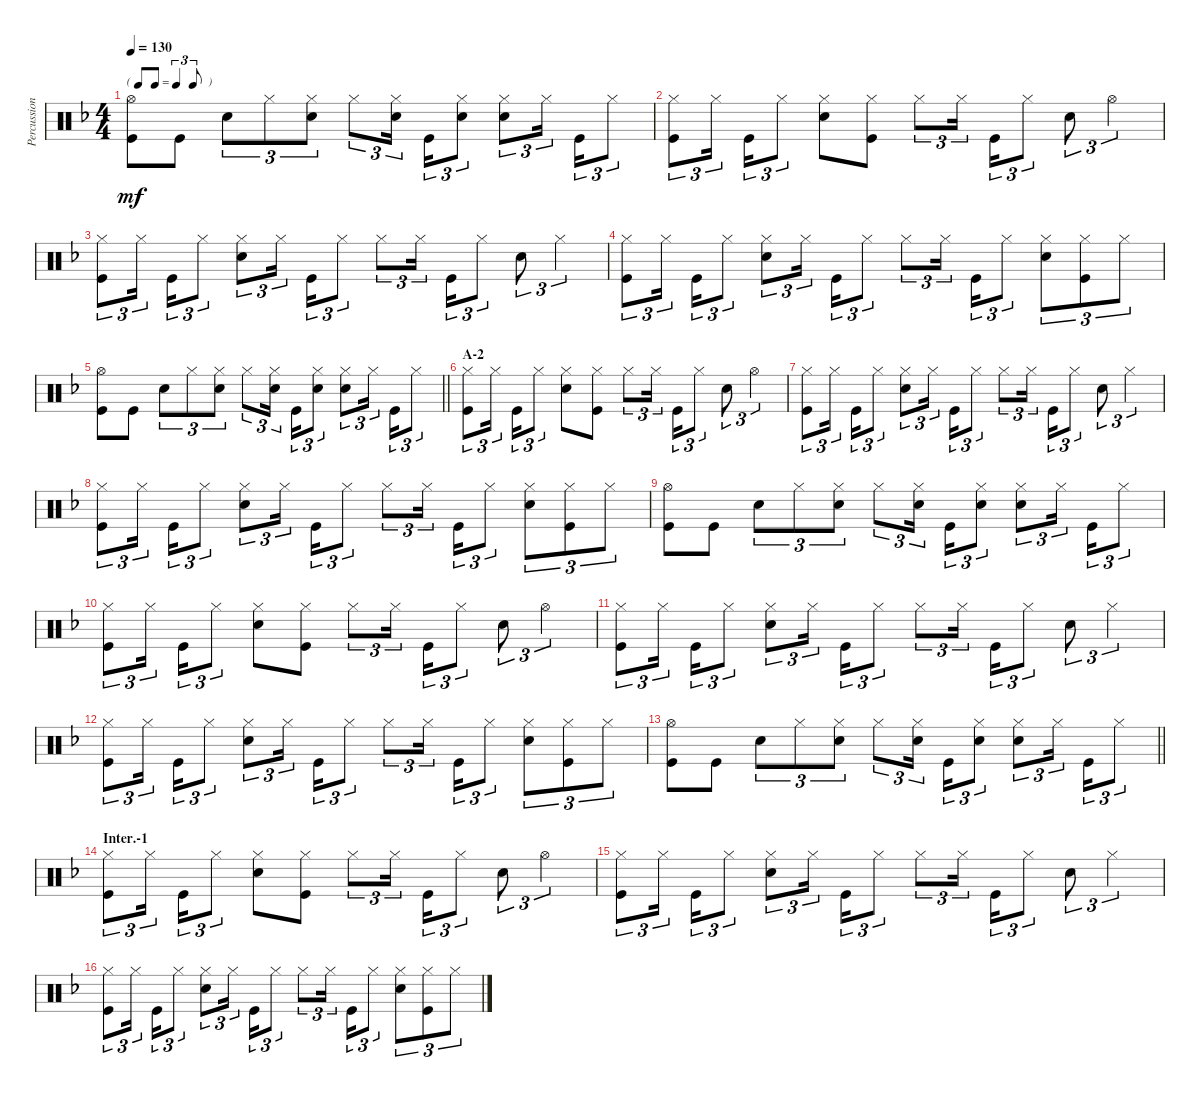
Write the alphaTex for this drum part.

\track ("Percussion I (Tainaka Ritsu)" "Percussion") {instrument percussion}
\staff {score}
\articulation defaults
\ts (4 4)
\tf triplet8th
\tempo 130
\clef neutral
\ks f
("Hi-Hat (open)" "Kick (hit)").8{dy mf} "Kick (hit)".8 "Snare (hit) 2".8{tu (3 2)} "Hi-Hat (closed)".8{tu (3 2)} ("Hi-Hat (closed)" "Snare (hit) 2").8{tu (3 2)} "Hi-Hat (closed)".8{tu (3 2)} ("Hi-Hat (closed)" "Snare (hit) 2").16{tu (3 2) beam splitsecondary} "Kick (hit)".16{tu (3 2)} ("Hi-Hat (closed)" "Snare (hit) 2").8{tu (3 2)} ("Hi-Hat (closed)" "Snare (hit) 2").8{tu (3 2)} "Hi-Hat (closed)".16{tu (3 2) beam splitsecondary} "Kick (hit)".16{tu (3 2)} "Hi-Hat (closed)".8{tu (3 2)} |
("Hi-Hat (closed)" "Kick (hit)").8{tu (3 2)} "Hi-Hat (closed)".16{tu (3 2) beam splitsecondary} "Kick (hit)".16{tu (3 2)} "Hi-Hat (closed)".8{tu (3 2)} ("Hi-Hat (closed)" "Snare (hit) 2").8 ("Hi-Hat (closed)" "Kick (hit)").8 "Hi-Hat (closed)".8{tu (3 2)} "Hi-Hat (closed)".16{tu (3 2) beam splitsecondary} "Kick (hit)".16{tu (3 2)} "Hi-Hat (closed)".8{tu (3 2)} "Snare (hit) 2".8{tu (3 2)} "Hi-Hat (open)".4{tu (3 2)} |
("Hi-Hat (closed)" "Kick (hit)").8{tu (3 2)} "Hi-Hat (closed)".16{tu (3 2) beam splitsecondary} "Kick (hit)".16{tu (3 2)} "Hi-Hat (closed)".8{tu (3 2)} ("Hi-Hat (closed)" "Snare (hit) 2").8{tu (3 2)} "Hi-Hat (closed)".16{tu (3 2) beam splitsecondary} "Kick (hit)".16{tu (3 2)} "Hi-Hat (closed)".8{tu (3 2)} "Hi-Hat (closed)".8{tu (3 2)} "Hi-Hat (closed)".16{tu (3 2) beam splitsecondary} "Kick (hit)".16{tu (3 2)} "Hi-Hat (closed)".8{tu (3 2)} "Snare (hit) 2".8{tu (3 2)} "Hi-Hat (closed)".4{tu (3 2)} |
("Hi-Hat (closed)" "Kick (hit)").8{tu (3 2)} "Hi-Hat (closed)".16{tu (3 2) beam splitsecondary} "Kick (hit)".16{tu (3 2)} "Hi-Hat (closed)".8{tu (3 2)} ("Hi-Hat (closed)" "Snare (hit) 2").8{tu (3 2)} "Hi-Hat (closed)".16{tu (3 2) beam splitsecondary} "Kick (hit)".16{tu (3 2)} "Hi-Hat (closed)".8{tu (3 2)} "Hi-Hat (closed)".8{tu (3 2)} "Hi-Hat (closed)".16{tu (3 2) beam splitsecondary} "Kick (hit)".16{tu (3 2)} "Hi-Hat (closed)".8{tu (3 2)} ("Hi-Hat (closed)" "Snare (hit) 2").8{tu (3 2)} ("Hi-Hat (closed)" "Kick (hit)").8{tu (3 2)} "Hi-Hat (closed)".8{tu (3 2)} |
\barLineRight lightlight
("Hi-Hat (open)" "Kick (hit)").8 "Kick (hit)".8 "Snare (hit) 2".8{tu (3 2)} "Hi-Hat (closed)".8{tu (3 2)} ("Hi-Hat (closed)" "Snare (hit) 2").8{tu (3 2)} "Hi-Hat (closed)".8{tu (3 2)} ("Hi-Hat (closed)" "Snare (hit) 2").16{tu (3 2) beam splitsecondary} "Kick (hit)".16{tu (3 2)} ("Hi-Hat (closed)" "Snare (hit) 2").8{tu (3 2)} ("Hi-Hat (closed)" "Snare (hit) 2").8{tu (3 2)} "Hi-Hat (closed)".16{tu (3 2) beam splitsecondary} "Kick (hit)".16{tu (3 2)} "Hi-Hat (closed)".8{tu (3 2)} |
\section ("" "A-2")
("Hi-Hat (closed)" "Kick (hit)").8{tu (3 2)} "Hi-Hat (closed)".16{tu (3 2) beam splitsecondary} "Kick (hit)".16{tu (3 2)} "Hi-Hat (closed)".8{tu (3 2)} ("Hi-Hat (closed)" "Snare (hit) 2").8 ("Hi-Hat (closed)" "Kick (hit)").8 "Hi-Hat (closed)".8{tu (3 2)} "Hi-Hat (closed)".16{tu (3 2) beam splitsecondary} "Kick (hit)".16{tu (3 2)} "Hi-Hat (closed)".8{tu (3 2)} "Snare (hit) 2".8{tu (3 2)} "Hi-Hat (open)".4{tu (3 2)} |
("Hi-Hat (closed)" "Kick (hit)").8{tu (3 2)} "Hi-Hat (closed)".16{tu (3 2) beam splitsecondary} "Kick (hit)".16{tu (3 2)} "Hi-Hat (closed)".8{tu (3 2)} ("Hi-Hat (closed)" "Snare (hit) 2").8{tu (3 2)} "Hi-Hat (closed)".16{tu (3 2) beam splitsecondary} "Kick (hit)".16{tu (3 2)} "Hi-Hat (closed)".8{tu (3 2)} "Hi-Hat (closed)".8{tu (3 2)} "Hi-Hat (closed)".16{tu (3 2) beam splitsecondary} "Kick (hit)".16{tu (3 2)} "Hi-Hat (closed)".8{tu (3 2)} "Snare (hit) 2".8{tu (3 2)} "Hi-Hat (closed)".4{tu (3 2)} |
("Hi-Hat (closed)" "Kick (hit)").8{tu (3 2)} "Hi-Hat (closed)".16{tu (3 2) beam splitsecondary} "Kick (hit)".16{tu (3 2)} "Hi-Hat (closed)".8{tu (3 2)} ("Hi-Hat (closed)" "Snare (hit) 2").8{tu (3 2)} "Hi-Hat (closed)".16{tu (3 2) beam splitsecondary} "Kick (hit)".16{tu (3 2)} "Hi-Hat (closed)".8{tu (3 2)} "Hi-Hat (closed)".8{tu (3 2)} "Hi-Hat (closed)".16{tu (3 2) beam splitsecondary} "Kick (hit)".16{tu (3 2)} "Hi-Hat (closed)".8{tu (3 2)} ("Hi-Hat (closed)" "Snare (hit) 2").8{tu (3 2)} ("Hi-Hat (closed)" "Kick (hit)").8{tu (3 2)} "Hi-Hat (closed)".8{tu (3 2)} |
("Hi-Hat (open)" "Kick (hit)").8 "Kick (hit)".8 "Snare (hit) 2".8{tu (3 2)} "Hi-Hat (closed)".8{tu (3 2)} ("Hi-Hat (closed)" "Snare (hit) 2").8{tu (3 2)} "Hi-Hat (closed)".8{tu (3 2)} ("Hi-Hat (closed)" "Snare (hit) 2").16{tu (3 2) beam splitsecondary} "Kick (hit)".16{tu (3 2)} ("Hi-Hat (closed)" "Snare (hit) 2").8{tu (3 2)} ("Hi-Hat (closed)" "Snare (hit) 2").8{tu (3 2)} "Hi-Hat (closed)".16{tu (3 2) beam splitsecondary} "Kick (hit)".16{tu (3 2)} "Hi-Hat (closed)".8{tu (3 2)} |
("Hi-Hat (closed)" "Kick (hit)").8{tu (3 2)} "Hi-Hat (closed)".16{tu (3 2) beam splitsecondary} "Kick (hit)".16{tu (3 2)} "Hi-Hat (closed)".8{tu (3 2)} ("Hi-Hat (closed)" "Snare (hit) 2").8 ("Hi-Hat (closed)" "Kick (hit)").8 "Hi-Hat (closed)".8{tu (3 2)} "Hi-Hat (closed)".16{tu (3 2) beam splitsecondary} "Kick (hit)".16{tu (3 2)} "Hi-Hat (closed)".8{tu (3 2)} "Snare (hit) 2".8{tu (3 2)} "Hi-Hat (open)".4{tu (3 2)} |
("Hi-Hat (closed)" "Kick (hit)").8{tu (3 2)} "Hi-Hat (closed)".16{tu (3 2) beam splitsecondary} "Kick (hit)".16{tu (3 2)} "Hi-Hat (closed)".8{tu (3 2)} ("Hi-Hat (closed)" "Snare (hit) 2").8{tu (3 2)} "Hi-Hat (closed)".16{tu (3 2) beam splitsecondary} "Kick (hit)".16{tu (3 2)} "Hi-Hat (closed)".8{tu (3 2)} "Hi-Hat (closed)".8{tu (3 2)} "Hi-Hat (closed)".16{tu (3 2) beam splitsecondary} "Kick (hit)".16{tu (3 2)} "Hi-Hat (closed)".8{tu (3 2)} "Snare (hit) 2".8{tu (3 2)} "Hi-Hat (closed)".4{tu (3 2)} |
("Hi-Hat (closed)" "Kick (hit)").8{tu (3 2)} "Hi-Hat (closed)".16{tu (3 2) beam splitsecondary} "Kick (hit)".16{tu (3 2)} "Hi-Hat (closed)".8{tu (3 2)} ("Hi-Hat (closed)" "Snare (hit) 2").8{tu (3 2)} "Hi-Hat (closed)".16{tu (3 2) beam splitsecondary} "Kick (hit)".16{tu (3 2)} "Hi-Hat (closed)".8{tu (3 2)} "Hi-Hat (closed)".8{tu (3 2)} "Hi-Hat (closed)".16{tu (3 2) beam splitsecondary} "Kick (hit)".16{tu (3 2)} "Hi-Hat (closed)".8{tu (3 2)} ("Hi-Hat (closed)" "Snare (hit) 2").8{tu (3 2)} ("Hi-Hat (closed)" "Kick (hit)").8{tu (3 2)} "Hi-Hat (closed)".8{tu (3 2)} |
\barLineRight lightlight
("Hi-Hat (open)" "Kick (hit)").8 "Kick (hit)".8 "Snare (hit) 2".8{tu (3 2)} "Hi-Hat (closed)".8{tu (3 2)} ("Hi-Hat (closed)" "Snare (hit) 2").8{tu (3 2)} "Hi-Hat (closed)".8{tu (3 2)} ("Hi-Hat (closed)" "Snare (hit) 2").16{tu (3 2) beam splitsecondary} "Kick (hit)".16{tu (3 2)} ("Hi-Hat (closed)" "Snare (hit) 2").8{tu (3 2)} ("Hi-Hat (closed)" "Snare (hit) 2").8{tu (3 2)} "Hi-Hat (closed)".16{tu (3 2) beam splitsecondary} "Kick (hit)".16{tu (3 2)} "Hi-Hat (closed)".8{tu (3 2)} |
\section ("" "Inter.-1")
("Hi-Hat (closed)" "Kick (hit)").8{tu (3 2)} "Hi-Hat (closed)".16{tu (3 2) beam splitsecondary} "Kick (hit)".16{tu (3 2)} "Hi-Hat (closed)".8{tu (3 2)} ("Hi-Hat (closed)" "Snare (hit) 2").8 ("Hi-Hat (closed)" "Kick (hit)").8 "Hi-Hat (closed)".8{tu (3 2)} "Hi-Hat (closed)".16{tu (3 2) beam splitsecondary} "Kick (hit)".16{tu (3 2)} "Hi-Hat (closed)".8{tu (3 2)} "Snare (hit) 2".8{tu (3 2)} "Hi-Hat (open)".4{tu (3 2)} |
("Hi-Hat (closed)" "Kick (hit)").8{tu (3 2)} "Hi-Hat (closed)".16{tu (3 2) beam splitsecondary} "Kick (hit)".16{tu (3 2)} "Hi-Hat (closed)".8{tu (3 2)} ("Hi-Hat (closed)" "Snare (hit) 2").8{tu (3 2)} "Hi-Hat (closed)".16{tu (3 2) beam splitsecondary} "Kick (hit)".16{tu (3 2)} "Hi-Hat (closed)".8{tu (3 2)} "Hi-Hat (closed)".8{tu (3 2)} "Hi-Hat (closed)".16{tu (3 2) beam splitsecondary} "Kick (hit)".16{tu (3 2)} "Hi-Hat (closed)".8{tu (3 2)} "Snare (hit) 2".8{tu (3 2)} "Hi-Hat (closed)".4{tu (3 2)} |
("Hi-Hat (closed)" "Kick (hit)").8{tu (3 2)} "Hi-Hat (closed)".16{tu (3 2) beam splitsecondary} "Kick (hit)".16{tu (3 2)} "Hi-Hat (closed)".8{tu (3 2)} ("Hi-Hat (closed)" "Snare (hit) 2").8{tu (3 2)} "Hi-Hat (closed)".16{tu (3 2) beam splitsecondary} "Kick (hit)".16{tu (3 2)} "Hi-Hat (closed)".8{tu (3 2)} "Hi-Hat (closed)".8{tu (3 2)} "Hi-Hat (closed)".16{tu (3 2) beam splitsecondary} "Kick (hit)".16{tu (3 2)} "Hi-Hat (closed)".8{tu (3 2)} ("Hi-Hat (closed)" "Snare (hit) 2").8{tu (3 2)} ("Hi-Hat (closed)" "Kick (hit)").8{tu (3 2)} "Hi-Hat (closed)".8{tu (3 2)}
